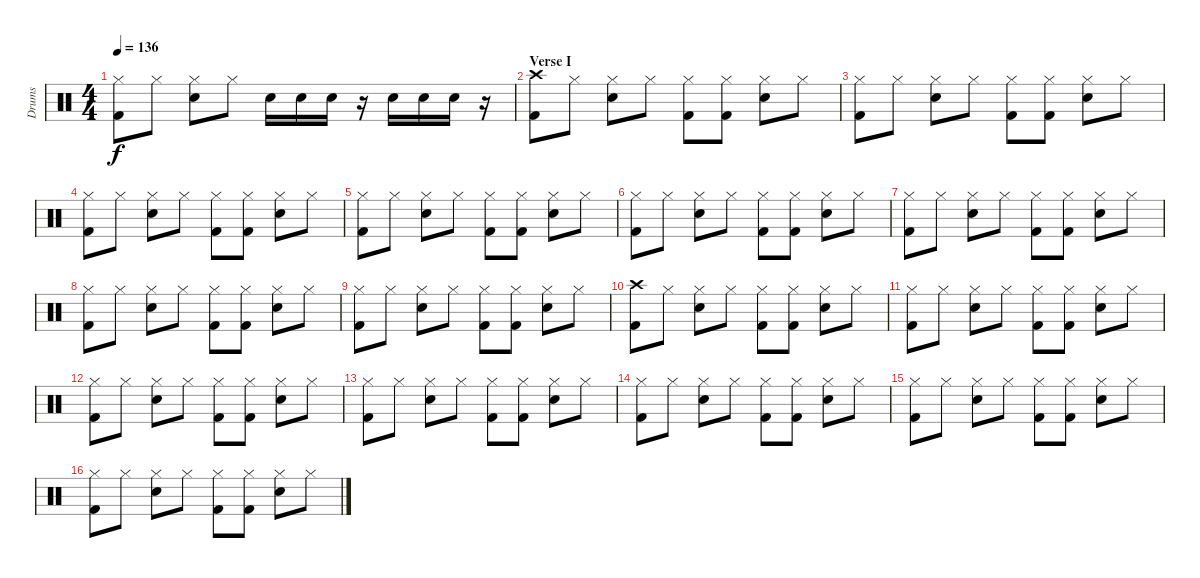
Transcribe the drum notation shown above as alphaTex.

\track ("Drums" "Drums") {instrument percussion}
\staff {score}
\articulation defaults
\ts (4 4)
\tempo 136
\clef neutral
\ks c
("Hi-Hat (closed)" "Kick (hit) 2").8{dy f} "Hi-Hat (closed)".8 ("Hi-Hat (closed)" "Snare (hit) 2").8 "Hi-Hat (closed)".8 "Snare (hit) 2".16 "Snare (hit) 2".16 "Snare (hit) 2".16 r.16 "Snare (hit) 2".16 "Snare (hit) 2".16 "Snare (hit) 2".16 r.16 |
\section ("" "Verse I")
("Crash high (hit)" "Kick (hit) 2").8 "Hi-Hat (closed)".8 ("Hi-Hat (closed)" "Snare (hit) 2").8 "Hi-Hat (closed)".8 ("Hi-Hat (closed)" "Kick (hit) 2").8 ("Hi-Hat (closed)" "Kick (hit) 2").8 ("Hi-Hat (closed)" "Snare (hit) 2").8 "Hi-Hat (closed)".8 |
("Hi-Hat (closed)" "Kick (hit) 2").8 "Hi-Hat (closed)".8 ("Hi-Hat (closed)" "Snare (hit) 2").8 "Hi-Hat (closed)".8 ("Hi-Hat (closed)" "Kick (hit) 2").8 ("Hi-Hat (closed)" "Kick (hit) 2").8 ("Hi-Hat (closed)" "Snare (hit) 2").8 "Hi-Hat (closed)".8 |
("Hi-Hat (closed)" "Kick (hit) 2").8 "Hi-Hat (closed)".8 ("Hi-Hat (closed)" "Snare (hit) 2").8 "Hi-Hat (closed)".8 ("Hi-Hat (closed)" "Kick (hit) 2").8 ("Hi-Hat (closed)" "Kick (hit) 2").8 ("Hi-Hat (closed)" "Snare (hit) 2").8 "Hi-Hat (closed)".8 |
("Hi-Hat (closed)" "Kick (hit) 2").8 "Hi-Hat (closed)".8 ("Hi-Hat (closed)" "Snare (hit) 2").8 "Hi-Hat (closed)".8 ("Hi-Hat (closed)" "Kick (hit) 2").8 ("Hi-Hat (closed)" "Kick (hit) 2").8 ("Hi-Hat (closed)" "Snare (hit) 2").8 "Hi-Hat (closed)".8 |
("Hi-Hat (closed)" "Kick (hit) 2").8 "Hi-Hat (closed)".8 ("Hi-Hat (closed)" "Snare (hit) 2").8 "Hi-Hat (closed)".8 ("Hi-Hat (closed)" "Kick (hit) 2").8 ("Hi-Hat (closed)" "Kick (hit) 2").8 ("Hi-Hat (closed)" "Snare (hit) 2").8 "Hi-Hat (closed)".8 |
("Hi-Hat (closed)" "Kick (hit) 2").8 "Hi-Hat (closed)".8 ("Hi-Hat (closed)" "Snare (hit) 2").8 "Hi-Hat (closed)".8 ("Hi-Hat (closed)" "Kick (hit) 2").8 ("Hi-Hat (closed)" "Kick (hit) 2").8 ("Hi-Hat (closed)" "Snare (hit) 2").8 "Hi-Hat (closed)".8 |
("Hi-Hat (closed)" "Kick (hit) 2").8 "Hi-Hat (closed)".8 ("Hi-Hat (closed)" "Snare (hit) 2").8 "Hi-Hat (closed)".8 ("Hi-Hat (closed)" "Kick (hit) 2").8 ("Hi-Hat (closed)" "Kick (hit) 2").8 ("Hi-Hat (closed)" "Snare (hit) 2").8 "Hi-Hat (closed)".8 |
("Hi-Hat (closed)" "Kick (hit) 2").8 "Hi-Hat (closed)".8 ("Hi-Hat (closed)" "Snare (hit) 2").8 "Hi-Hat (closed)".8 ("Hi-Hat (closed)" "Kick (hit) 2").8 ("Hi-Hat (closed)" "Kick (hit) 2").8 ("Hi-Hat (closed)" "Snare (hit) 2").8 "Hi-Hat (closed)".8 |
("Crash high (hit)" "Kick (hit) 2").8 "Hi-Hat (closed)".8 ("Hi-Hat (closed)" "Snare (hit) 2").8 "Hi-Hat (closed)".8 ("Hi-Hat (closed)" "Kick (hit) 2").8 ("Hi-Hat (closed)" "Kick (hit) 2").8 ("Hi-Hat (closed)" "Snare (hit) 2").8 "Hi-Hat (closed)".8 |
("Hi-Hat (closed)" "Kick (hit) 2").8 "Hi-Hat (closed)".8 ("Hi-Hat (closed)" "Snare (hit) 2").8 "Hi-Hat (closed)".8 ("Hi-Hat (closed)" "Kick (hit) 2").8 ("Hi-Hat (closed)" "Kick (hit) 2").8 ("Hi-Hat (closed)" "Snare (hit) 2").8 "Hi-Hat (closed)".8 |
("Hi-Hat (closed)" "Kick (hit) 2").8 "Hi-Hat (closed)".8 ("Hi-Hat (closed)" "Snare (hit) 2").8 "Hi-Hat (closed)".8 ("Hi-Hat (closed)" "Kick (hit) 2").8 ("Hi-Hat (closed)" "Kick (hit) 2").8 ("Hi-Hat (closed)" "Snare (hit) 2").8 "Hi-Hat (closed)".8 |
("Hi-Hat (closed)" "Kick (hit) 2").8 "Hi-Hat (closed)".8 ("Hi-Hat (closed)" "Snare (hit) 2").8 "Hi-Hat (closed)".8 ("Hi-Hat (closed)" "Kick (hit) 2").8 ("Hi-Hat (closed)" "Kick (hit) 2").8 ("Hi-Hat (closed)" "Snare (hit) 2").8 "Hi-Hat (closed)".8 |
("Hi-Hat (closed)" "Kick (hit) 2").8 "Hi-Hat (closed)".8 ("Hi-Hat (closed)" "Snare (hit) 2").8 "Hi-Hat (closed)".8 ("Hi-Hat (closed)" "Kick (hit) 2").8 ("Hi-Hat (closed)" "Kick (hit) 2").8 ("Hi-Hat (closed)" "Snare (hit) 2").8 "Hi-Hat (closed)".8 |
("Hi-Hat (closed)" "Kick (hit) 2").8 "Hi-Hat (closed)".8 ("Hi-Hat (closed)" "Snare (hit) 2").8 "Hi-Hat (closed)".8 ("Hi-Hat (closed)" "Kick (hit) 2").8 ("Hi-Hat (closed)" "Kick (hit) 2").8 ("Hi-Hat (closed)" "Snare (hit) 2").8 "Hi-Hat (closed)".8 |
("Hi-Hat (closed)" "Kick (hit) 2").8 "Hi-Hat (closed)".8 ("Hi-Hat (closed)" "Snare (hit) 2").8 "Hi-Hat (closed)".8 ("Hi-Hat (closed)" "Kick (hit) 2").8 ("Hi-Hat (closed)" "Kick (hit) 2").8 ("Hi-Hat (closed)" "Snare (hit) 2").8 "Hi-Hat (closed)".8
